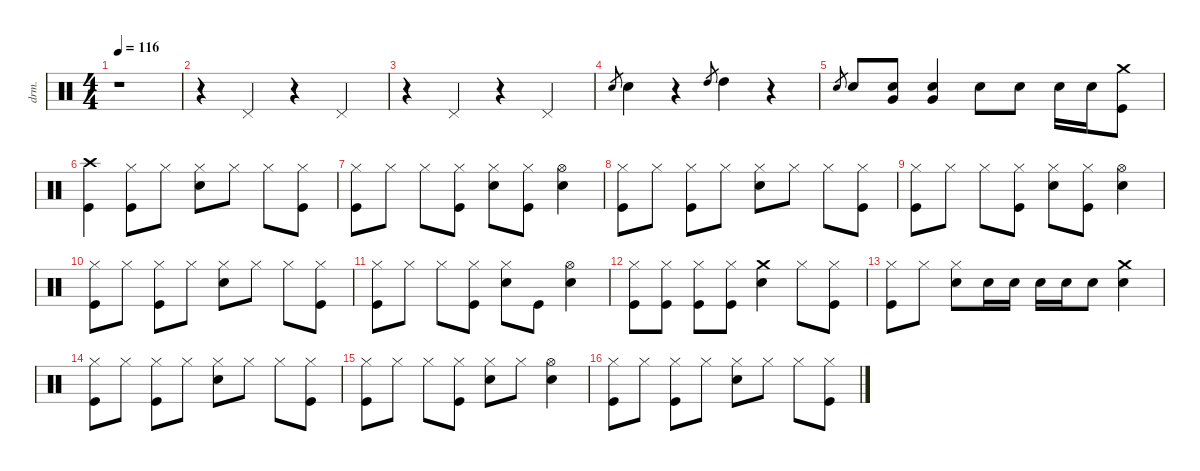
\defaultSystemsLayout 4
\hideDynamics
\bracketExtendMode nobrackets
\otherSystemsTrackNameOrientation horizontal
\track ("Drum" "drm.") {instrument percussion}
\staff {score}
\articulation defaults
\ts (4 4)
\tempo 116
\clef neutral
\ks c
r.1{dy f beam Down} |
r.4{beam Down} "Pedal Hi-Hat (hit)".4{beam Up} r.4{beam Up} "Pedal Hi-Hat (hit)".4{beam Up} |
r.4{beam Down} "Pedal Hi-Hat (hit)".4{beam Up} r.4{beam Up} "Pedal Hi-Hat (hit)".4{beam Up} |
"Electric Snare (hit)".8{gr dy mf beam Up} "Snare (hit) 2".4{dy f beam Down} r.4{beam Down} "High Tom (hit)".8{gr dy mf beam Up} "High Tom (hit)".4{dy f beam Down} r.4{beam Down} |
"Electric Snare (hit)".8{gr dy mf beam Up} "Snare (hit) 2".8{dy f beam Up} ("Snare (hit) 2" "Very Low Tom (hit)").8{beam Up} ("Snare (hit) 2" "Very Low Tom (hit)").4{beam Up} "Snare (hit) 2".8{beam Down} "Snare (hit) 2".8{beam Down} "Snare (hit) 2".16{beam Down} "Snare (hit) 2".16{beam Down} ("Kick (hit)" "Crash medium (hit)").8{beam Down} |
("Kick (hit)" "Crash high (hit)").4{beam Down} ("Kick (hit)" "Hi-Hat (closed)").8{beam Down} "Hi-Hat (closed)".8{beam Down} ("Snare (hit) 2" "Hi-Hat (closed)").8{beam Down} "Hi-Hat (closed)".8{beam Down} "Hi-Hat (closed)".8{beam Down} ("Kick (hit)" "Hi-Hat (closed)").8{beam Down} |
("Kick (hit)" "Hi-Hat (closed)").8{beam Down} "Hi-Hat (closed)".8{beam Down} "Hi-Hat (closed)".8{beam Down} ("Kick (hit)" "Hi-Hat (closed)").8{beam Down} ("Snare (hit) 2" "Hi-Hat (closed)").8{beam Down} ("Kick (hit)" "Hi-Hat (closed)").8{beam Down} ("Snare (hit) 2" "Hi-Hat (open)").4{beam Down} |
("Kick (hit)" "Hi-Hat (closed)").8{beam Down} "Hi-Hat (closed)".8{beam Down} ("Kick (hit)" "Hi-Hat (closed)").8{beam Down} "Hi-Hat (closed)".8{beam Down} ("Snare (hit) 2" "Hi-Hat (closed)").8{beam Down} "Hi-Hat (closed)".8{beam Down} "Hi-Hat (closed)".8{beam Down} ("Kick (hit)" "Hi-Hat (closed)").8{beam Down} |
("Kick (hit)" "Hi-Hat (closed)").8{beam Down} "Hi-Hat (closed)".8{beam Down} "Hi-Hat (closed)".8{beam Down} ("Kick (hit)" "Hi-Hat (closed)").8{beam Down} ("Snare (hit) 2" "Hi-Hat (closed)").8{beam Down} ("Kick (hit)" "Hi-Hat (closed)").8{beam Down} ("Snare (hit) 2" "Hi-Hat (open)").4{beam Down} |
("Kick (hit)" "Hi-Hat (closed)").8{beam Down} "Hi-Hat (closed)".8{beam Down} ("Kick (hit)" "Hi-Hat (closed)").8{beam Down} "Hi-Hat (closed)".8{beam Down} ("Snare (hit) 2" "Hi-Hat (closed)").8{beam Down} "Hi-Hat (closed)".8{beam Down} "Hi-Hat (closed)".8{beam Down} ("Kick (hit)" "Hi-Hat (closed)").8{beam Down} |
("Kick (hit)" "Hi-Hat (closed)").8{beam Down} "Hi-Hat (closed)".8{beam Down} "Hi-Hat (closed)".8{beam Down} ("Kick (hit)" "Hi-Hat (closed)").8{beam Down} ("Snare (hit) 2" "Hi-Hat (closed)").8{beam Down} "Kick (hit)".8{beam Down} ("Snare (hit) 2" "Hi-Hat (open)").4{beam Down} |
("Kick (hit)" "Hi-Hat (closed)").8{beam Down} ("Kick (hit)" "Hi-Hat (closed)").8{beam Down} ("Kick (hit)" "Hi-Hat (closed)").8{beam Down} ("Kick (hit)" "Hi-Hat (closed)").8{beam Down} ("Snare (hit) 2" "Crash medium (hit)").4{beam Down} "Hi-Hat (closed)".8{beam Down} ("Kick (hit)" "Hi-Hat (closed)").8{beam Down} |
("Kick (hit)" "Hi-Hat (closed)").8{beam Down} "Hi-Hat (closed)".8{beam Down} ("Snare (hit) 2" "Hi-Hat (closed)").8{beam Down} "Snare (hit) 2".16{beam Down} "Snare (hit) 2".16{beam Down} "Snare (hit) 2".16{beam Down} "Snare (hit) 2".16{beam Down} "Snare (hit) 2".8{beam Down} ("Snare (hit) 2" "Crash medium (hit)").4{beam Down} |
("Kick (hit)" "Hi-Hat (closed)").8{beam Down} "Hi-Hat (closed)".8{beam Down} ("Kick (hit)" "Hi-Hat (closed)").8{beam Down} "Hi-Hat (closed)".8{beam Down} ("Snare (hit) 2" "Hi-Hat (closed)").8{beam Down} "Hi-Hat (closed)".8{beam Down} "Hi-Hat (closed)".8{beam Down} ("Kick (hit)" "Hi-Hat (closed)").8{beam Down} |
("Kick (hit)" "Hi-Hat (closed)").8{beam Down} "Hi-Hat (closed)".8{beam Down} "Hi-Hat (closed)".8{beam Down} ("Kick (hit)" "Hi-Hat (closed)").8{beam Down} ("Snare (hit) 2" "Hi-Hat (closed)").8{beam Down} "Hi-Hat (closed)".8{beam Down} ("Snare (hit) 2" "Hi-Hat (open)").4{beam Down} |
("Kick (hit)" "Hi-Hat (closed)").8{beam Down} "Hi-Hat (closed)".8{beam Down} ("Kick (hit)" "Hi-Hat (closed)").8{beam Down} "Hi-Hat (closed)".8{beam Down} ("Snare (hit) 2" "Hi-Hat (closed)").8{beam Down} "Hi-Hat (closed)".8{beam Down} "Hi-Hat (closed)".8{beam Down} ("Kick (hit)" "Hi-Hat (closed)").8{beam Down}
